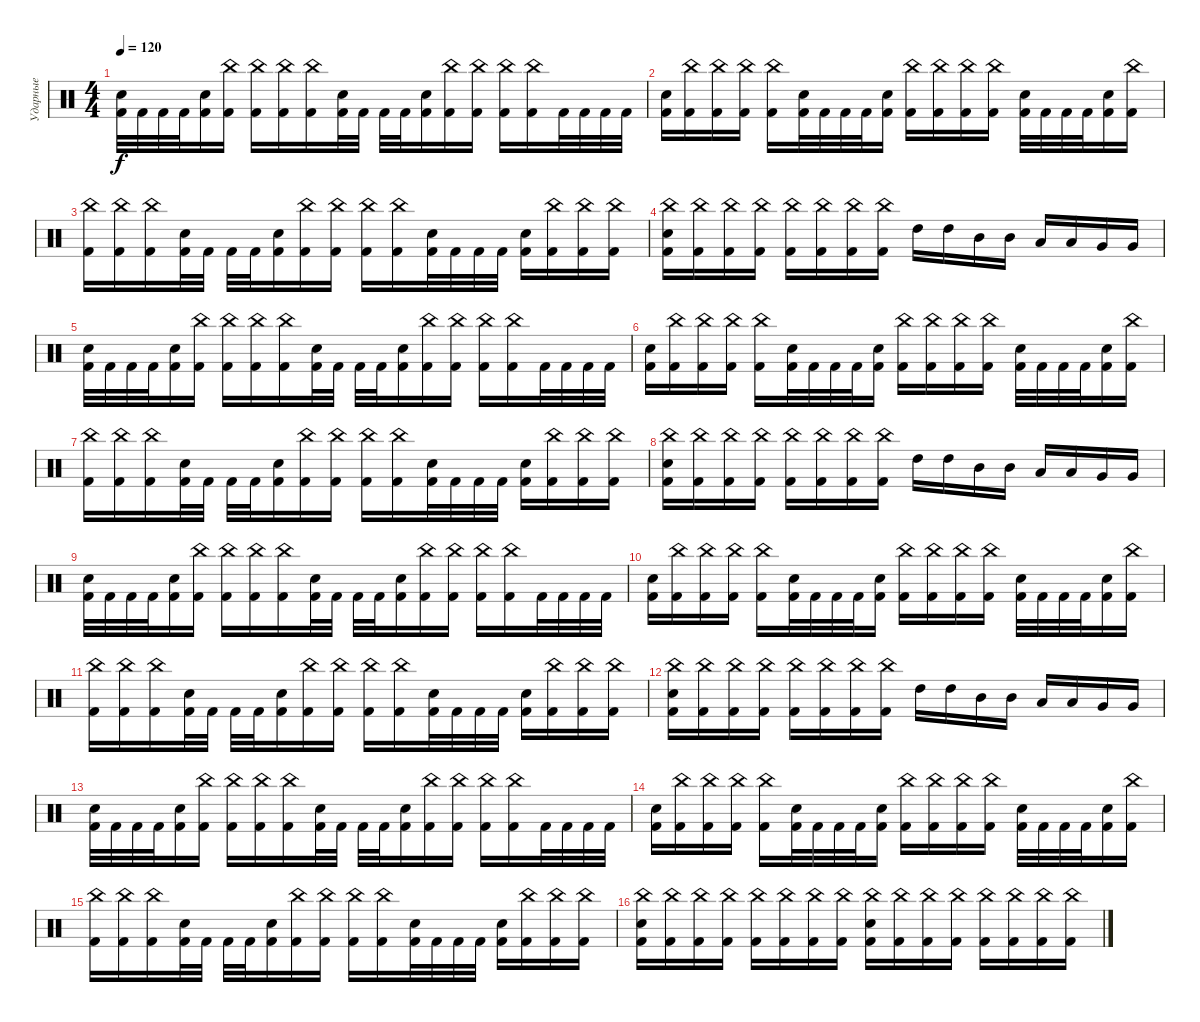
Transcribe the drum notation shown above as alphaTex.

\track ("Ударные" "Ударные") {instrument percussion}
\staff {score}
\articulation defaults
\ts (4 4)
\tempo 120
\clef neutral
\ks c
("Snare (hit) 2" "Kick (hit) 2").32{dy f} "Kick (hit) 2".32 "Kick (hit) 2".32 "Kick (hit) 2".32 ("Snare (hit) 2" "Kick (hit) 2").16 ("China (hit)" "Kick (hit) 2").16 ("China (hit)" "Kick (hit) 2").16 ("China (hit)" "Kick (hit) 2").16 ("China (hit)" "Kick (hit) 2").16 ("Snare (hit) 2" "Kick (hit) 2").32 "Kick (hit) 2".32 "Kick (hit) 2".32 "Kick (hit) 2".32 ("Snare (hit) 2" "Kick (hit) 2").16 ("China (hit)" "Kick (hit) 2").16 ("China (hit)" "Kick (hit) 2").16 ("China (hit)" "Kick (hit) 2").16 ("China (hit)" "Kick (hit) 2").16 "Kick (hit) 2".32 "Kick (hit) 2".32 "Kick (hit) 2".32 "Kick (hit) 2".32 |
("Snare (hit) 2" "Kick (hit) 2").16 ("China (hit)" "Kick (hit) 2").16 ("China (hit)" "Kick (hit) 2").16 ("China (hit)" "Kick (hit) 2").16 ("China (hit)" "Kick (hit) 2").16 ("Snare (hit) 2" "Kick (hit) 2").32 "Kick (hit) 2".32 "Kick (hit) 2".32 "Kick (hit) 2".32 ("Snare (hit) 2" "Kick (hit) 2").16 ("China (hit)" "Kick (hit) 2").16 ("China (hit)" "Kick (hit) 2").16 ("China (hit)" "Kick (hit) 2").16 ("China (hit)" "Kick (hit) 2").16 ("Snare (hit) 2" "Kick (hit) 2").32 "Kick (hit) 2".32 "Kick (hit) 2".32 "Kick (hit) 2".32 ("Snare (hit) 2" "Kick (hit) 2").16 ("China (hit)" "Kick (hit) 2").16 |
("China (hit)" "Kick (hit) 2").16 ("China (hit)" "Kick (hit) 2").16 ("China (hit)" "Kick (hit) 2").16 ("Snare (hit) 2" "Kick (hit) 2").32 "Kick (hit) 2".32 "Kick (hit) 2".32 "Kick (hit) 2".32 ("Snare (hit) 2" "Kick (hit) 2").16 ("China (hit)" "Kick (hit) 2").16 ("China (hit)" "Kick (hit) 2").16 ("China (hit)" "Kick (hit) 2").16 ("China (hit)" "Kick (hit) 2").16 ("Snare (hit) 2" "Kick (hit) 2").32 "Kick (hit) 2".32 "Kick (hit) 2".32 "Kick (hit) 2".32 ("Snare (hit) 2" "Kick (hit) 2").16 ("China (hit)" "Kick (hit) 2").16 ("China (hit)" "Kick (hit) 2").16 ("China (hit)" "Kick (hit) 2").16 |
("China (hit)" "Snare (hit) 2" "Kick (hit) 2").16 ("China (hit)" "Kick (hit) 2").16 ("China (hit)" "Kick (hit) 2").16 ("China (hit)" "Kick (hit) 2").16 ("China (hit)" "Kick (hit) 2").16 ("China (hit)" "Kick (hit) 2").16 ("China (hit)" "Kick (hit) 2").16 ("China (hit)" "Kick (hit) 2").16 "High Tom (hit)".16 "High Tom (hit)".16 "Mid Tom (hit)".16 "Mid Tom (hit)".16 "Low Tom (hit)".16 "Low Tom (hit)".16 "Very Low Tom (hit)".16 "Very Low Tom (hit)".16 |
("Snare (hit) 2" "Kick (hit) 2").32 "Kick (hit) 2".32 "Kick (hit) 2".32 "Kick (hit) 2".32 ("Snare (hit) 2" "Kick (hit) 2").16 ("China (hit)" "Kick (hit) 2").16 ("China (hit)" "Kick (hit) 2").16 ("China (hit)" "Kick (hit) 2").16 ("China (hit)" "Kick (hit) 2").16 ("Snare (hit) 2" "Kick (hit) 2").32 "Kick (hit) 2".32 "Kick (hit) 2".32 "Kick (hit) 2".32 ("Snare (hit) 2" "Kick (hit) 2").16 ("China (hit)" "Kick (hit) 2").16 ("China (hit)" "Kick (hit) 2").16 ("China (hit)" "Kick (hit) 2").16 ("China (hit)" "Kick (hit) 2").16 "Kick (hit) 2".32 "Kick (hit) 2".32 "Kick (hit) 2".32 "Kick (hit) 2".32 |
("Snare (hit) 2" "Kick (hit) 2").16 ("China (hit)" "Kick (hit) 2").16 ("China (hit)" "Kick (hit) 2").16 ("China (hit)" "Kick (hit) 2").16 ("China (hit)" "Kick (hit) 2").16 ("Snare (hit) 2" "Kick (hit) 2").32 "Kick (hit) 2".32 "Kick (hit) 2".32 "Kick (hit) 2".32 ("Snare (hit) 2" "Kick (hit) 2").16 ("China (hit)" "Kick (hit) 2").16 ("China (hit)" "Kick (hit) 2").16 ("China (hit)" "Kick (hit) 2").16 ("China (hit)" "Kick (hit) 2").16 ("Snare (hit) 2" "Kick (hit) 2").32 "Kick (hit) 2".32 "Kick (hit) 2".32 "Kick (hit) 2".32 ("Snare (hit) 2" "Kick (hit) 2").16 ("China (hit)" "Kick (hit) 2").16 |
("China (hit)" "Kick (hit) 2").16 ("China (hit)" "Kick (hit) 2").16 ("China (hit)" "Kick (hit) 2").16 ("Snare (hit) 2" "Kick (hit) 2").32 "Kick (hit) 2".32 "Kick (hit) 2".32 "Kick (hit) 2".32 ("Snare (hit) 2" "Kick (hit) 2").16 ("China (hit)" "Kick (hit) 2").16 ("China (hit)" "Kick (hit) 2").16 ("China (hit)" "Kick (hit) 2").16 ("China (hit)" "Kick (hit) 2").16 ("Snare (hit) 2" "Kick (hit) 2").32 "Kick (hit) 2".32 "Kick (hit) 2".32 "Kick (hit) 2".32 ("Snare (hit) 2" "Kick (hit) 2").16 ("China (hit)" "Kick (hit) 2").16 ("China (hit)" "Kick (hit) 2").16 ("China (hit)" "Kick (hit) 2").16 |
("China (hit)" "Snare (hit) 2" "Kick (hit) 2").16 ("China (hit)" "Kick (hit) 2").16 ("China (hit)" "Kick (hit) 2").16 ("China (hit)" "Kick (hit) 2").16 ("China (hit)" "Kick (hit) 2").16 ("China (hit)" "Kick (hit) 2").16 ("China (hit)" "Kick (hit) 2").16 ("China (hit)" "Kick (hit) 2").16 "High Tom (hit)".16 "High Tom (hit)".16 "Mid Tom (hit)".16 "Mid Tom (hit)".16 "Low Tom (hit)".16 "Low Tom (hit)".16 "Very Low Tom (hit)".16 "Very Low Tom (hit)".16 |
("Snare (hit) 2" "Kick (hit) 2").32 "Kick (hit) 2".32 "Kick (hit) 2".32 "Kick (hit) 2".32 ("Snare (hit) 2" "Kick (hit) 2").16 ("China (hit)" "Kick (hit) 2").16 ("China (hit)" "Kick (hit) 2").16 ("China (hit)" "Kick (hit) 2").16 ("China (hit)" "Kick (hit) 2").16 ("Snare (hit) 2" "Kick (hit) 2").32 "Kick (hit) 2".32 "Kick (hit) 2".32 "Kick (hit) 2".32 ("Snare (hit) 2" "Kick (hit) 2").16 ("China (hit)" "Kick (hit) 2").16 ("China (hit)" "Kick (hit) 2").16 ("China (hit)" "Kick (hit) 2").16 ("China (hit)" "Kick (hit) 2").16 "Kick (hit) 2".32 "Kick (hit) 2".32 "Kick (hit) 2".32 "Kick (hit) 2".32 |
("Snare (hit) 2" "Kick (hit) 2").16 ("China (hit)" "Kick (hit) 2").16 ("China (hit)" "Kick (hit) 2").16 ("China (hit)" "Kick (hit) 2").16 ("China (hit)" "Kick (hit) 2").16 ("Snare (hit) 2" "Kick (hit) 2").32 "Kick (hit) 2".32 "Kick (hit) 2".32 "Kick (hit) 2".32 ("Snare (hit) 2" "Kick (hit) 2").16 ("China (hit)" "Kick (hit) 2").16 ("China (hit)" "Kick (hit) 2").16 ("China (hit)" "Kick (hit) 2").16 ("China (hit)" "Kick (hit) 2").16 ("Snare (hit) 2" "Kick (hit) 2").32 "Kick (hit) 2".32 "Kick (hit) 2".32 "Kick (hit) 2".32 ("Snare (hit) 2" "Kick (hit) 2").16 ("China (hit)" "Kick (hit) 2").16 |
("China (hit)" "Kick (hit) 2").16 ("China (hit)" "Kick (hit) 2").16 ("China (hit)" "Kick (hit) 2").16 ("Snare (hit) 2" "Kick (hit) 2").32 "Kick (hit) 2".32 "Kick (hit) 2".32 "Kick (hit) 2".32 ("Snare (hit) 2" "Kick (hit) 2").16 ("China (hit)" "Kick (hit) 2").16 ("China (hit)" "Kick (hit) 2").16 ("China (hit)" "Kick (hit) 2").16 ("China (hit)" "Kick (hit) 2").16 ("Snare (hit) 2" "Kick (hit) 2").32 "Kick (hit) 2".32 "Kick (hit) 2".32 "Kick (hit) 2".32 ("Snare (hit) 2" "Kick (hit) 2").16 ("China (hit)" "Kick (hit) 2").16 ("China (hit)" "Kick (hit) 2").16 ("China (hit)" "Kick (hit) 2").16 |
("China (hit)" "Snare (hit) 2" "Kick (hit) 2").16 ("China (hit)" "Kick (hit) 2").16 ("China (hit)" "Kick (hit) 2").16 ("China (hit)" "Kick (hit) 2").16 ("China (hit)" "Kick (hit) 2").16 ("China (hit)" "Kick (hit) 2").16 ("China (hit)" "Kick (hit) 2").16 ("China (hit)" "Kick (hit) 2").16 "High Tom (hit)".16 "High Tom (hit)".16 "Mid Tom (hit)".16 "Mid Tom (hit)".16 "Low Tom (hit)".16 "Low Tom (hit)".16 "Very Low Tom (hit)".16 "Very Low Tom (hit)".16 |
("Snare (hit) 2" "Kick (hit) 2").32 "Kick (hit) 2".32 "Kick (hit) 2".32 "Kick (hit) 2".32 ("Snare (hit) 2" "Kick (hit) 2").16 ("China (hit)" "Kick (hit) 2").16 ("China (hit)" "Kick (hit) 2").16 ("China (hit)" "Kick (hit) 2").16 ("China (hit)" "Kick (hit) 2").16 ("Snare (hit) 2" "Kick (hit) 2").32 "Kick (hit) 2".32 "Kick (hit) 2".32 "Kick (hit) 2".32 ("Snare (hit) 2" "Kick (hit) 2").16 ("China (hit)" "Kick (hit) 2").16 ("China (hit)" "Kick (hit) 2").16 ("China (hit)" "Kick (hit) 2").16 ("China (hit)" "Kick (hit) 2").16 "Kick (hit) 2".32 "Kick (hit) 2".32 "Kick (hit) 2".32 "Kick (hit) 2".32 |
("Snare (hit) 2" "Kick (hit) 2").16 ("China (hit)" "Kick (hit) 2").16 ("China (hit)" "Kick (hit) 2").16 ("China (hit)" "Kick (hit) 2").16 ("China (hit)" "Kick (hit) 2").16 ("Snare (hit) 2" "Kick (hit) 2").32 "Kick (hit) 2".32 "Kick (hit) 2".32 "Kick (hit) 2".32 ("Snare (hit) 2" "Kick (hit) 2").16 ("China (hit)" "Kick (hit) 2").16 ("China (hit)" "Kick (hit) 2").16 ("China (hit)" "Kick (hit) 2").16 ("China (hit)" "Kick (hit) 2").16 ("Snare (hit) 2" "Kick (hit) 2").32 "Kick (hit) 2".32 "Kick (hit) 2".32 "Kick (hit) 2".32 ("Snare (hit) 2" "Kick (hit) 2").16 ("China (hit)" "Kick (hit) 2").16 |
("China (hit)" "Kick (hit) 2").16 ("China (hit)" "Kick (hit) 2").16 ("China (hit)" "Kick (hit) 2").16 ("Snare (hit) 2" "Kick (hit) 2").32 "Kick (hit) 2".32 "Kick (hit) 2".32 "Kick (hit) 2".32 ("Snare (hit) 2" "Kick (hit) 2").16 ("China (hit)" "Kick (hit) 2").16 ("China (hit)" "Kick (hit) 2").16 ("China (hit)" "Kick (hit) 2").16 ("China (hit)" "Kick (hit) 2").16 ("Snare (hit) 2" "Kick (hit) 2").32 "Kick (hit) 2".32 "Kick (hit) 2".32 "Kick (hit) 2".32 ("Snare (hit) 2" "Kick (hit) 2").16 ("China (hit)" "Kick (hit) 2").16 ("China (hit)" "Kick (hit) 2").16 ("China (hit)" "Kick (hit) 2").16 |
("China (hit)" "Snare (hit) 2" "Kick (hit) 2").16 ("China (hit)" "Kick (hit) 2").16 ("China (hit)" "Kick (hit) 2").16 ("China (hit)" "Kick (hit) 2").16 ("China (hit)" "Kick (hit) 2").16 ("China (hit)" "Kick (hit) 2").16 ("China (hit)" "Kick (hit) 2").16 ("China (hit)" "Kick (hit) 2").16 ("China (hit)" "Snare (hit) 2" "Kick (hit) 2").16 ("China (hit)" "Kick (hit) 2").16 ("China (hit)" "Kick (hit) 2").16 ("China (hit)" "Kick (hit) 2").16 ("China (hit)" "Kick (hit) 2").16 ("China (hit)" "Kick (hit) 2").16 ("China (hit)" "Kick (hit) 2").16 ("China (hit)" "Kick (hit) 2").16
